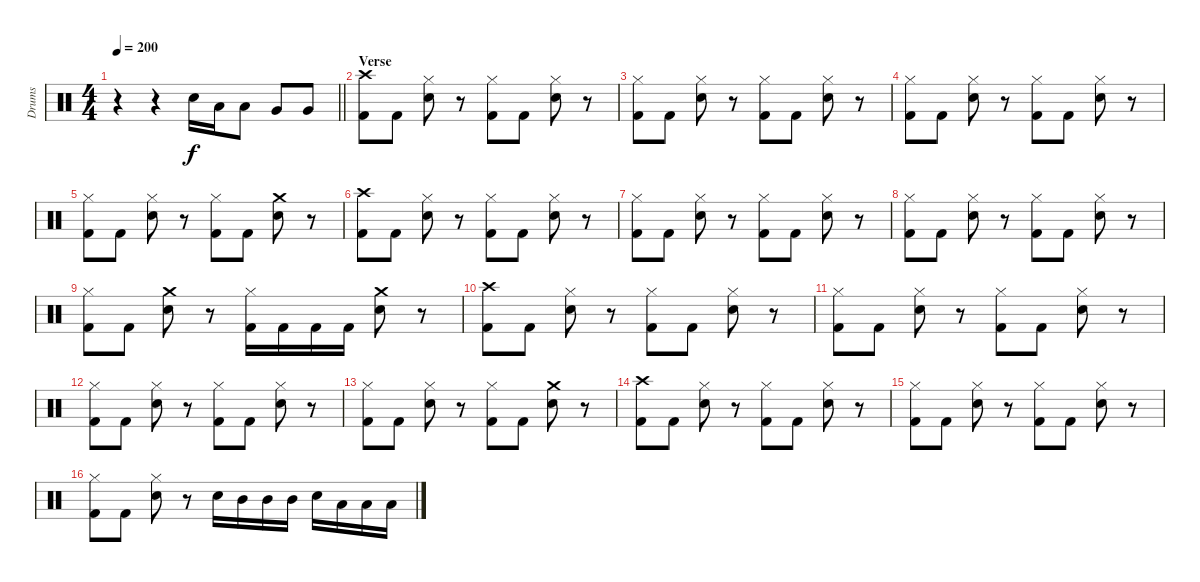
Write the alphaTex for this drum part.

\track ("Drums" "Drums") {instrument percussion}
\staff {score}
\articulation defaults
\ts (4 4)
\tempo 200
\clef neutral
\barLineRight lightlight
\ks c
r.4{dy f} r.4 "Electric Snare (hit)".16 "Low Tom (hit)".16 "Low Tom (hit)".8 "Very Low Tom (hit)".8 "Very Low Tom (hit)".8 |
\section ("" "Verse")
("Crash high (hit)" "Kick (hit) 2").8 "Kick (hit) 2".8 ("Hi-Hat (closed)" "Electric Snare (hit)").8 r.8 ("Hi-Hat (closed)" "Kick (hit) 2").8 "Kick (hit) 2".8 ("Hi-Hat (closed)" "Electric Snare (hit)").8 r.8 |
("Hi-Hat (closed)" "Kick (hit) 2").8 "Kick (hit) 2".8 ("Hi-Hat (closed)" "Electric Snare (hit)").8 r.8 ("Hi-Hat (closed)" "Kick (hit) 2").8 "Kick (hit) 2".8 ("Hi-Hat (closed)" "Electric Snare (hit)").8 r.8 |
("Hi-Hat (closed)" "Kick (hit) 2").8 "Kick (hit) 2".8 ("Hi-Hat (closed)" "Electric Snare (hit)").8 r.8 ("Hi-Hat (closed)" "Kick (hit) 2").8 "Kick (hit) 2".8 ("Hi-Hat (closed)" "Electric Snare (hit)").8 r.8 |
("Hi-Hat (closed)" "Kick (hit) 2").8 "Kick (hit) 2".8 ("Hi-Hat (closed)" "Electric Snare (hit)").8 r.8 ("Hi-Hat (closed)" "Kick (hit) 2").8 "Kick (hit) 2".8 ("Crash medium (hit)" "Electric Snare (hit)").8 r.8 |
("Crash high (hit)" "Kick (hit) 2").8 "Kick (hit) 2".8 ("Hi-Hat (closed)" "Electric Snare (hit)").8 r.8 ("Hi-Hat (closed)" "Kick (hit) 2").8 "Kick (hit) 2".8 ("Hi-Hat (closed)" "Electric Snare (hit)").8 r.8 |
("Hi-Hat (closed)" "Kick (hit) 2").8 "Kick (hit) 2".8 ("Hi-Hat (closed)" "Electric Snare (hit)").8 r.8 ("Hi-Hat (closed)" "Kick (hit) 2").8 "Kick (hit) 2".8 ("Hi-Hat (closed)" "Electric Snare (hit)").8 r.8 |
("Hi-Hat (closed)" "Kick (hit) 2").8 "Kick (hit) 2".8 ("Hi-Hat (closed)" "Electric Snare (hit)").8 r.8 ("Hi-Hat (closed)" "Kick (hit) 2").8 "Kick (hit) 2".8 ("Hi-Hat (closed)" "Electric Snare (hit)").8 r.8 |
("Hi-Hat (closed)" "Kick (hit) 2").8 "Kick (hit) 2".8 ("Crash medium (hit)" "Electric Snare (hit)").8 r.8 ("Hi-Hat (closed)" "Kick (hit) 2").16 "Kick (hit) 2".16 "Kick (hit) 2".16 "Kick (hit) 2".16 ("Crash medium (hit)" "Electric Snare (hit)").8 r.8 |
("Crash high (hit)" "Kick (hit) 2").8 "Kick (hit) 2".8 ("Hi-Hat (closed)" "Electric Snare (hit)").8 r.8 ("Hi-Hat (closed)" "Kick (hit) 2").8 "Kick (hit) 2".8 ("Hi-Hat (closed)" "Electric Snare (hit)").8 r.8 |
("Hi-Hat (closed)" "Kick (hit) 2").8 "Kick (hit) 2".8 ("Hi-Hat (closed)" "Electric Snare (hit)").8 r.8 ("Hi-Hat (closed)" "Kick (hit) 2").8 "Kick (hit) 2".8 ("Hi-Hat (closed)" "Electric Snare (hit)").8 r.8 |
("Hi-Hat (closed)" "Kick (hit) 2").8 "Kick (hit) 2".8 ("Hi-Hat (closed)" "Electric Snare (hit)").8 r.8 ("Hi-Hat (closed)" "Kick (hit) 2").8 "Kick (hit) 2".8 ("Hi-Hat (closed)" "Electric Snare (hit)").8 r.8 |
("Hi-Hat (closed)" "Kick (hit) 2").8 "Kick (hit) 2".8 ("Hi-Hat (closed)" "Electric Snare (hit)").8 r.8 ("Hi-Hat (closed)" "Kick (hit) 2").8 "Kick (hit) 2".8 ("Crash medium (hit)" "Electric Snare (hit)").8 r.8 |
("Crash high (hit)" "Kick (hit) 2").8 "Kick (hit) 2".8 ("Hi-Hat (closed)" "Electric Snare (hit)").8 r.8 ("Hi-Hat (closed)" "Kick (hit) 2").8 "Kick (hit) 2".8 ("Hi-Hat (closed)" "Electric Snare (hit)").8 r.8 |
("Hi-Hat (closed)" "Kick (hit) 2").8 "Kick (hit) 2".8 ("Hi-Hat (closed)" "Electric Snare (hit)").8 r.8 ("Hi-Hat (closed)" "Kick (hit) 2").8 "Kick (hit) 2".8 ("Hi-Hat (closed)" "Electric Snare (hit)").8 r.8 |
("Hi-Hat (closed)" "Kick (hit) 2").8 "Kick (hit) 2".8 ("Hi-Hat (closed)" "Electric Snare (hit)").8 r.8 "Electric Snare (hit)".16 "Mid Tom (hit)".16 "Mid Tom (hit)".16 "Mid Tom (hit)".16 "Electric Snare (hit)".16 "Low Tom (hit)".16 "Low Tom (hit)".16 "Low Tom (hit)".16
